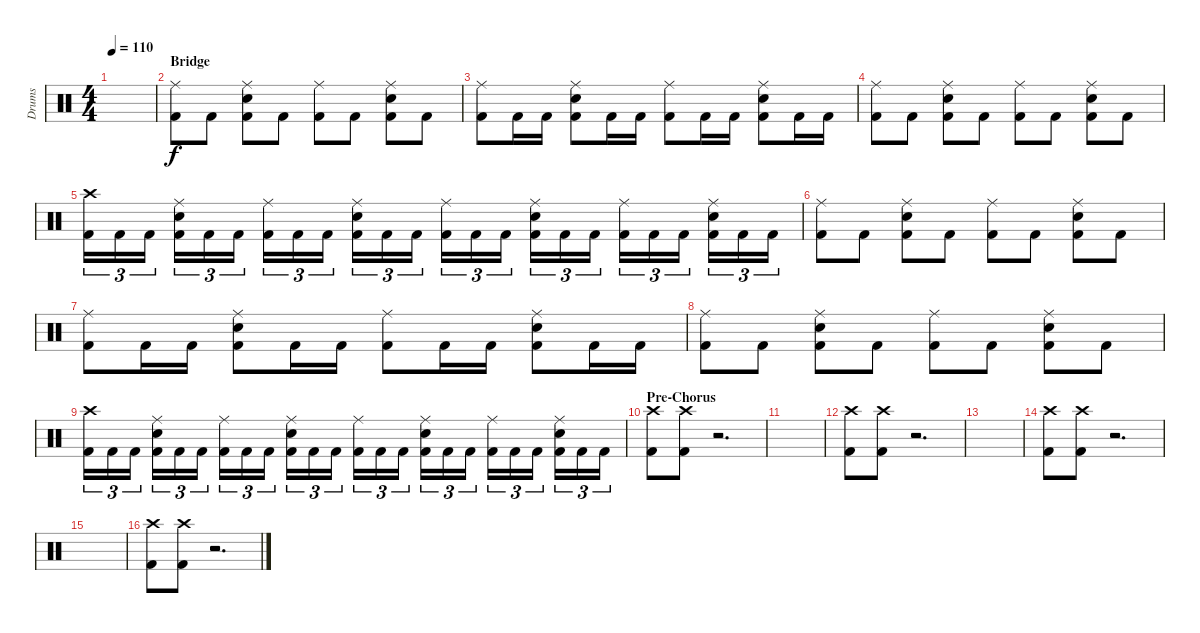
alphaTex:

\track ("Drums" "Drums") {instrument percussion}
\staff {score}
\articulation defaults
\ts (4 4)
\tempo 110
\clef neutral
\ks c
|
\section ("" "Bridge")
("Ride (middle)" "Kick (hit) 2").8 "Kick (hit) 2".8 ("Ride (middle)" "Snare (hit) 2" "Kick (hit) 2").8 "Kick (hit) 2".8 ("Ride (middle)" "Kick (hit) 2").8 "Kick (hit) 2".8 ("Ride (middle)" "Snare (hit) 2" "Kick (hit) 2").8 "Kick (hit) 2".8 |
("Ride (middle)" "Kick (hit) 2").8 "Kick (hit) 2".16 "Kick (hit) 2".16 ("Ride (middle)" "Snare (hit) 2" "Kick (hit) 2").8 "Kick (hit) 2".16 "Kick (hit) 2".16 ("Ride (middle)" "Kick (hit) 2").8 "Kick (hit) 2".16 "Kick (hit) 2".16 ("Ride (middle)" "Snare (hit) 2" "Kick (hit) 2").8 "Kick (hit) 2".16 "Kick (hit) 2".16 |
("Ride (middle)" "Kick (hit) 2").8 "Kick (hit) 2".8 ("Ride (middle)" "Snare (hit) 2" "Kick (hit) 2").8 "Kick (hit) 2".8 ("Ride (middle)" "Kick (hit) 2").8 "Kick (hit) 2".8 ("Ride (middle)" "Snare (hit) 2" "Kick (hit) 2").8 "Kick (hit) 2".8 |
("Crash high (hit)" "Kick (hit) 2").16{tu (3 2)} "Kick (hit) 2".16{tu (3 2)} "Kick (hit) 2".16{tu (3 2)} ("Ride (middle)" "Snare (hit) 2" "Kick (hit) 2").16{tu (3 2)} "Kick (hit) 2".16{tu (3 2)} "Kick (hit) 2".16{tu (3 2)} ("Ride (middle)" "Kick (hit) 2").16{tu (3 2)} "Kick (hit) 2".16{tu (3 2)} "Kick (hit) 2".16{tu (3 2)} ("Ride (middle)" "Snare (hit) 2" "Kick (hit) 2").16{tu (3 2)} "Kick (hit) 2".16{tu (3 2)} "Kick (hit) 2".16{tu (3 2)} ("Ride (middle)" "Kick (hit) 2").16{tu (3 2)} "Kick (hit) 2".16{tu (3 2)} "Kick (hit) 2".16{tu (3 2)} ("Ride (middle)" "Snare (hit) 2" "Kick (hit) 2").16{tu (3 2)} "Kick (hit) 2".16{tu (3 2)} "Kick (hit) 2".16{tu (3 2)} ("Ride (middle)" "Kick (hit) 2").16{tu (3 2)} "Kick (hit) 2".16{tu (3 2)} "Kick (hit) 2".16{tu (3 2)} ("Ride (middle)" "Snare (hit) 2" "Kick (hit) 2").16{tu (3 2)} "Kick (hit) 2".16{tu (3 2)} "Kick (hit) 2".16{tu (3 2)} |
("Ride (middle)" "Kick (hit) 2").8 "Kick (hit) 2".8 ("Ride (middle)" "Snare (hit) 2" "Kick (hit) 2").8 "Kick (hit) 2".8 ("Ride (middle)" "Kick (hit) 2").8 "Kick (hit) 2".8 ("Ride (middle)" "Snare (hit) 2" "Kick (hit) 2").8 "Kick (hit) 2".8 |
("Ride (middle)" "Kick (hit) 2").8 "Kick (hit) 2".16 "Kick (hit) 2".16 ("Ride (middle)" "Snare (hit) 2" "Kick (hit) 2").8 "Kick (hit) 2".16 "Kick (hit) 2".16 ("Ride (middle)" "Kick (hit) 2").8 "Kick (hit) 2".16 "Kick (hit) 2".16 ("Ride (middle)" "Snare (hit) 2" "Kick (hit) 2").8 "Kick (hit) 2".16 "Kick (hit) 2".16 |
("Ride (middle)" "Kick (hit) 2").8 "Kick (hit) 2".8 ("Ride (middle)" "Snare (hit) 2" "Kick (hit) 2").8 "Kick (hit) 2".8 ("Ride (middle)" "Kick (hit) 2").8 "Kick (hit) 2".8 ("Ride (middle)" "Snare (hit) 2" "Kick (hit) 2").8 "Kick (hit) 2".8 |
("Crash high (hit)" "Kick (hit) 2").16{tu (3 2)} "Kick (hit) 2".16{tu (3 2)} "Kick (hit) 2".16{tu (3 2)} ("Ride (middle)" "Snare (hit) 2" "Kick (hit) 2").16{tu (3 2)} "Kick (hit) 2".16{tu (3 2)} "Kick (hit) 2".16{tu (3 2)} ("Ride (middle)" "Kick (hit) 2").16{tu (3 2)} "Kick (hit) 2".16{tu (3 2)} "Kick (hit) 2".16{tu (3 2)} ("Ride (middle)" "Snare (hit) 2" "Kick (hit) 2").16{tu (3 2)} "Kick (hit) 2".16{tu (3 2)} "Kick (hit) 2".16{tu (3 2)} ("Ride (middle)" "Kick (hit) 2").16{tu (3 2)} "Kick (hit) 2".16{tu (3 2)} "Kick (hit) 2".16{tu (3 2)} ("Ride (middle)" "Snare (hit) 2" "Kick (hit) 2").16{tu (3 2)} "Kick (hit) 2".16{tu (3 2)} "Kick (hit) 2".16{tu (3 2)} ("Ride (middle)" "Kick (hit) 2").16{tu (3 2)} "Kick (hit) 2".16{tu (3 2)} "Kick (hit) 2".16{tu (3 2)} ("Ride (middle)" "Snare (hit) 2" "Kick (hit) 2").16{tu (3 2)} "Kick (hit) 2".16{tu (3 2)} "Kick (hit) 2".16{tu (3 2)} |
\section ("" "Pre-Chorus")
("Crash high (hit)" "Kick (hit) 2").8 ("Crash high (hit)" "Kick (hit) 2").8 r.2{d} |
|
("Crash high (hit)" "Kick (hit) 2").8 ("Crash high (hit)" "Kick (hit) 2").8 r.2{d} |
|
("Crash high (hit)" "Kick (hit) 2").8 ("Crash high (hit)" "Kick (hit) 2").8 r.2{d} |
|
("Crash high (hit)" "Kick (hit) 2").8 ("Crash high (hit)" "Kick (hit) 2").8 r.2{d}
